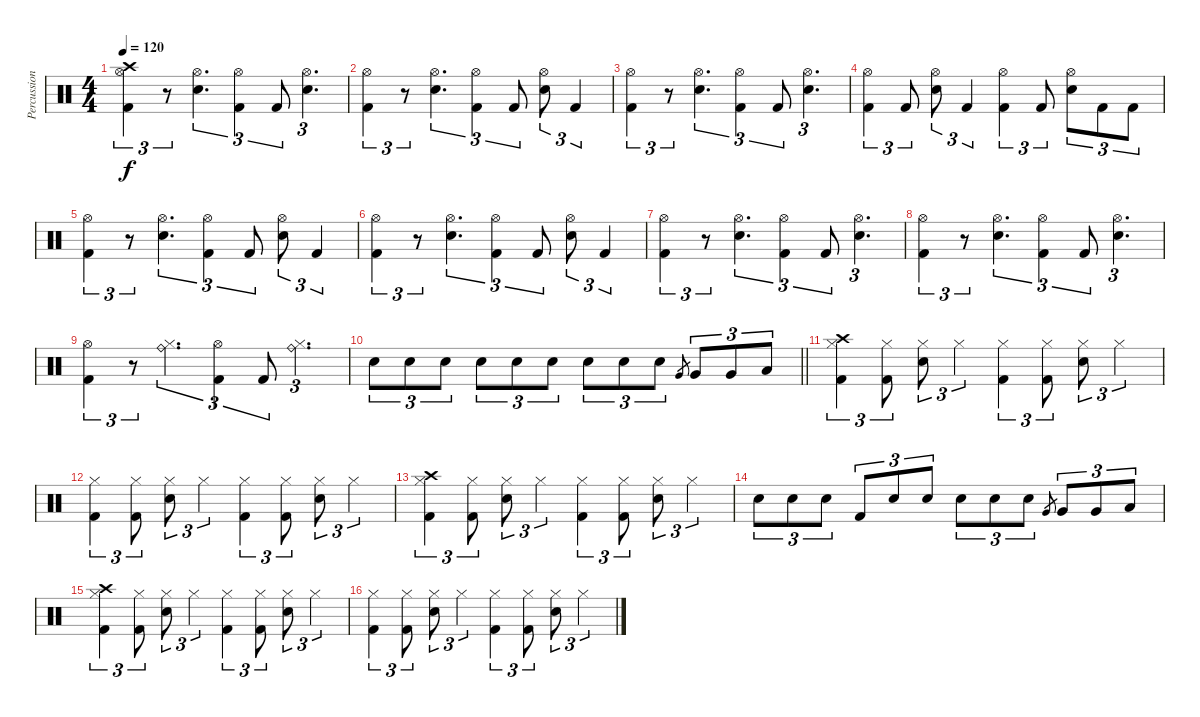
\track ("Percussion" "Percussion") {instrument percussion}
\staff {score}
\articulation defaults
\ts (4 4)
\tempo 120
\clef neutral
\ks c
("Hi-Hat (open)" "Crash high (hit)" "Kick (hit) 2").4{tu (3 2) dy f} r.8{tu (3 2)} ("Hi-Hat (open)" "Electric Snare (hit)").4{d tu (3 2)} ("Hi-Hat (open)" "Kick (hit) 2").4{tu (3 2)} "Kick (hit) 2".8{tu (3 2)} ("Hi-Hat (open)" "Electric Snare (hit)").4{d tu (3 2)} |
("Hi-Hat (open)" "Kick (hit) 2").4{tu (3 2)} r.8{tu (3 2)} ("Hi-Hat (open)" "Electric Snare (hit)").4{d tu (3 2)} ("Hi-Hat (open)" "Kick (hit) 2").4{tu (3 2)} "Kick (hit) 2".8{tu (3 2)} ("Hi-Hat (open)" "Electric Snare (hit)").8{tu (3 2)} "Kick (hit) 2".4{tu (3 2)} |
("Hi-Hat (open)" "Kick (hit) 2").4{tu (3 2)} r.8{tu (3 2)} ("Hi-Hat (open)" "Electric Snare (hit)").4{d tu (3 2)} ("Hi-Hat (open)" "Kick (hit) 2").4{tu (3 2)} "Kick (hit) 2".8{tu (3 2)} ("Hi-Hat (open)" "Electric Snare (hit)").4{d tu (3 2)} |
("Hi-Hat (open)" "Kick (hit) 2").4{tu (3 2)} "Kick (hit) 2".8{tu (3 2)} ("Hi-Hat (open)" "Electric Snare (hit)").8{tu (3 2)} "Kick (hit) 2".4{tu (3 2)} ("Hi-Hat (open)" "Kick (hit) 2").4{tu (3 2)} "Kick (hit) 2".8{tu (3 2)} ("Hi-Hat (open)" "Electric Snare (hit)").8{tu (3 2)} "Kick (hit) 2".8{tu (3 2)} "Kick (hit) 2".8{tu (3 2)} |
("Hi-Hat (open)" "Kick (hit) 2").4{tu (3 2)} r.8{tu (3 2)} ("Hi-Hat (open)" "Electric Snare (hit)").4{d tu (3 2)} ("Hi-Hat (open)" "Kick (hit) 2").4{tu (3 2)} "Kick (hit) 2".8{tu (3 2)} ("Hi-Hat (open)" "Electric Snare (hit)").8{tu (3 2)} "Kick (hit) 2".4{tu (3 2)} |
("Hi-Hat (open)" "Kick (hit) 2").4{tu (3 2)} r.8{tu (3 2)} ("Hi-Hat (open)" "Electric Snare (hit)").4{d tu (3 2)} ("Hi-Hat (open)" "Kick (hit) 2").4{tu (3 2)} "Kick (hit) 2".8{tu (3 2)} ("Hi-Hat (open)" "Electric Snare (hit)").8{tu (3 2)} "Kick (hit) 2".4{tu (3 2)} |
("Hi-Hat (open)" "Kick (hit) 2").4{tu (3 2)} r.8{tu (3 2)} ("Hi-Hat (open)" "Electric Snare (hit)").4{d tu (3 2)} ("Hi-Hat (open)" "Kick (hit) 2").4{tu (3 2)} "Kick (hit) 2".8{tu (3 2)} ("Hi-Hat (open)" "Electric Snare (hit)").4{d tu (3 2)} |
("Hi-Hat (open)" "Kick (hit) 2").4{tu (3 2)} r.8{tu (3 2)} ("Hi-Hat (open)" "Electric Snare (hit)").4{d tu (3 2)} ("Hi-Hat (open)" "Kick (hit) 2").4{tu (3 2)} "Kick (hit) 2".8{tu (3 2)} ("Hi-Hat (open)" "Electric Snare (hit)").4{d tu (3 2)} |
("Hi-Hat (open)" "Kick (hit) 2").4{tu (3 2)} r.8{tu (3 2)} ("Ride (bell)" "Hi-Hat (closed)").4{d tu (3 2)} ("Hi-Hat (open)" "Kick (hit) 2").4{tu (3 2)} "Kick (hit) 2".8{tu (3 2)} ("Ride (bell)" "Hi-Hat (closed)").4{d tu (3 2)} |
\barLineRight lightlight "Electric Snare (hit)".8{tu (3 2)} "Electric Snare (hit)".8{tu (3 2)} "Electric Snare (hit)".8{tu (3 2)} "Electric Snare (hit)".8{tu (3 2)} "Electric Snare (hit)".8{tu (3 2)} "Electric Snare (hit)".8{tu (3 2)} "Electric Snare (hit)".8{tu (3 2)} "Electric Snare (hit)".8{tu (3 2)} "Electric Snare (hit)".8{tu (3 2)} "Very Low Tom (hit)".8{gr} "Very Low Tom (hit)".8{tu (3 2)} "Very Low Tom (hit)".8{tu (3 2)} "Low Tom (hit)".8{tu (3 2)}
|
\section ("" "")
("Hi-Hat (closed)" "Crash high (hit)" "Kick (hit) 2").4{tu (3 2)} ("Hi-Hat (closed)" "Kick (hit) 2").8{tu (3 2)} ("Hi-Hat (closed)" "Electric Snare (hit)").8{tu (3 2)} "Hi-Hat (closed)".4{tu (3 2)} ("Hi-Hat (closed)" "Kick (hit) 2").4{tu (3 2)} ("Hi-Hat (closed)" "Kick (hit) 2").8{tu (3 2)} ("Hi-Hat (closed)" "Electric Snare (hit)").8{tu (3 2)} "Hi-Hat (closed)".4{tu (3 2)} |
("Hi-Hat (closed)" "Kick (hit) 2").4{tu (3 2)} ("Hi-Hat (closed)" "Kick (hit) 2").8{tu (3 2)} ("Hi-Hat (closed)" "Electric Snare (hit)").8{tu (3 2)} "Hi-Hat (closed)".4{tu (3 2)} ("Hi-Hat (closed)" "Kick (hit) 2").4{tu (3 2)} ("Hi-Hat (closed)" "Kick (hit) 2").8{tu (3 2)} ("Hi-Hat (closed)" "Electric Snare (hit)").8{tu (3 2)} "Hi-Hat (closed)".4{tu (3 2)} |
("Hi-Hat (closed)" "Crash high (hit)" "Kick (hit) 2").4{tu (3 2)} ("Hi-Hat (closed)" "Kick (hit) 2").8{tu (3 2)} ("Hi-Hat (closed)" "Electric Snare (hit)").8{tu (3 2)} "Hi-Hat (closed)".4{tu (3 2)} ("Hi-Hat (closed)" "Kick (hit) 2").4{tu (3 2)} ("Hi-Hat (closed)" "Kick (hit) 2").8{tu (3 2)} ("Hi-Hat (closed)" "Electric Snare (hit)").8{tu (3 2)} "Hi-Hat (closed)".4{tu (3 2)} |
"Electric Snare (hit)".8{tu (3 2)} "Electric Snare (hit)".8{tu (3 2)} "Electric Snare (hit)".8{tu (3 2)} "Kick (hit) 2".8{tu (3 2)} "Electric Snare (hit)".8{tu (3 2)} "Electric Snare (hit)".8{tu (3 2)} "Electric Snare (hit)".8{tu (3 2)} "Electric Snare (hit)".8{tu (3 2)} "Electric Snare (hit)".8{tu (3 2)} "Very Low Tom (hit)".8{gr} "Very Low Tom (hit)".8{tu (3 2)} "Very Low Tom (hit)".8{tu (3 2)} "Low Tom (hit)".8{tu (3 2)} |
("Hi-Hat (closed)" "Crash high (hit)" "Kick (hit) 2").4{tu (3 2)} ("Hi-Hat (closed)" "Kick (hit) 2").8{tu (3 2)} ("Hi-Hat (closed)" "Electric Snare (hit)").8{tu (3 2)} "Hi-Hat (closed)".4{tu (3 2)} ("Hi-Hat (closed)" "Kick (hit) 2").4{tu (3 2)} ("Hi-Hat (closed)" "Kick (hit) 2").8{tu (3 2)} ("Hi-Hat (closed)" "Electric Snare (hit)").8{tu (3 2)} "Hi-Hat (closed)".4{tu (3 2)} |
("Hi-Hat (closed)" "Kick (hit) 2").4{tu (3 2)} ("Hi-Hat (closed)" "Kick (hit) 2").8{tu (3 2)} ("Hi-Hat (closed)" "Electric Snare (hit)").8{tu (3 2)} "Hi-Hat (closed)".4{tu (3 2)} ("Hi-Hat (closed)" "Kick (hit) 2").4{tu (3 2)} ("Hi-Hat (closed)" "Kick (hit) 2").8{tu (3 2)} ("Hi-Hat (closed)" "Electric Snare (hit)").8{tu (3 2)} "Hi-Hat (closed)".4{tu (3 2)}
